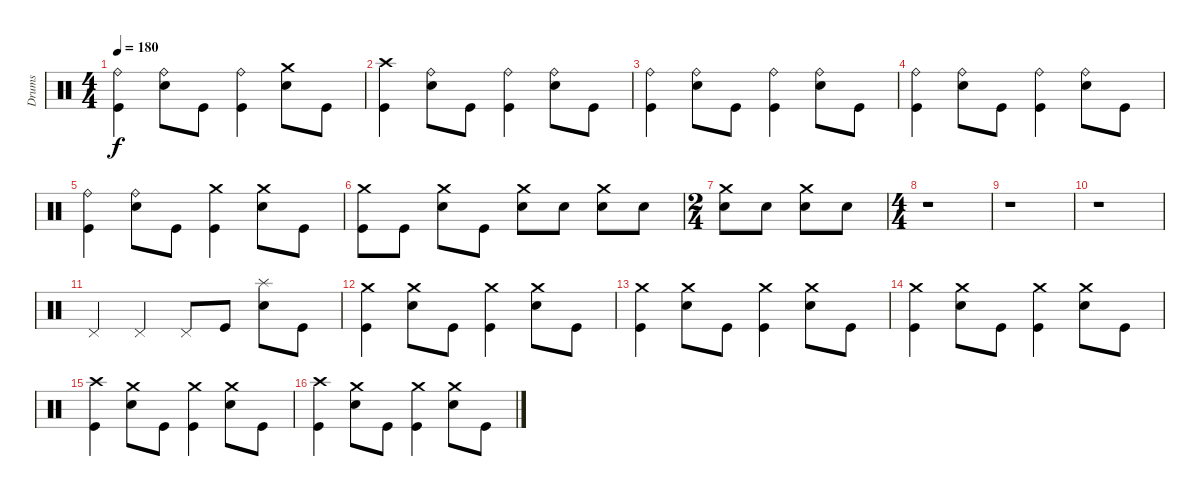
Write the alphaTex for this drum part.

\track ("Drums" "Drums") {instrument percussion}
\staff {score}
\articulation defaults
\ts (4 4)
\tempo 180
\clef neutral
\ks c
("Ride (bell)" "Kick (hit)").4{dy f} ("Ride (bell)" "Snare (hit) 2").8 "Kick (hit)".8 ("Ride (bell)" "Kick (hit)").4 ("Crash medium (hit)" "Snare (hit) 2").8 "Kick (hit)".8 |
("Crash high (hit)" "Kick (hit)").4 ("Ride (bell)" "Snare (hit) 2").8 "Kick (hit)".8 ("Ride (bell)" "Kick (hit)").4 ("Ride (bell)" "Snare (hit) 2").8 "Kick (hit)".8 |
("Ride (bell)" "Kick (hit)").4 ("Ride (bell)" "Snare (hit) 2").8 "Kick (hit)".8 ("Ride (bell)" "Kick (hit)").4 ("Ride (bell)" "Snare (hit) 2").8 "Kick (hit)".8 |
("Ride (bell)" "Kick (hit)").4 ("Ride (bell)" "Snare (hit) 2").8 "Kick (hit)".8 ("Ride (bell)" "Kick (hit)").4 ("Ride (bell)" "Snare (hit) 2").8 "Kick (hit)".8 |
("Ride (bell)" "Kick (hit)").4 ("Ride (bell)" "Snare (hit) 2").8 "Kick (hit)".8 ("Crash medium (hit)" "Kick (hit)").4 ("Crash medium (hit)" "Snare (hit) 2").8 "Kick (hit)".8 |
("Crash medium (hit)" "Kick (hit)").8 "Kick (hit)".8 ("Crash medium (hit)" "Snare (hit) 2").8 "Kick (hit)".8 ("Crash medium (hit)" "Snare (hit) 2").8 "Snare (hit) 2".8 ("Crash medium (hit)" "Snare (hit) 2").8 "Snare (hit) 2".8 |
\ts (2 4)
("Crash medium (hit)" "Snare (hit) 2").8 "Snare (hit) 2".8 ("Crash medium (hit)" "Snare (hit) 2").8 "Snare (hit) 2".8 |
\ts (4 4)
r.1 |
r.1 |
r.1 |
"Pedal Hi-Hat (hit)".4 "Pedal Hi-Hat (hit)".4 "Pedal Hi-Hat (hit)".8 "Kick (hit)".8 ("Splash (hit)" "Electric Snare (hit)").8 "Kick (hit)".8 |
("Crash medium (hit)" "Kick (hit)").4 ("Crash medium (hit)" "Electric Snare (hit)").8 "Kick (hit)".8 ("Crash medium (hit)" "Kick (hit)").4 ("Crash medium (hit)" "Electric Snare (hit)").8 "Kick (hit)".8 |
("Crash medium (hit)" "Kick (hit)").4 ("Crash medium (hit)" "Electric Snare (hit)").8 "Kick (hit)".8 ("Crash medium (hit)" "Kick (hit)").4 ("Crash medium (hit)" "Electric Snare (hit)").8 "Kick (hit)".8 |
("Crash medium (hit)" "Kick (hit)").4 ("Crash medium (hit)" "Electric Snare (hit)").8 "Kick (hit)".8 ("Crash medium (hit)" "Kick (hit)").4 ("Crash medium (hit)" "Electric Snare (hit)").8 "Kick (hit)".8 |
("Crash high (hit)" "Kick (hit)").4 ("Crash medium (hit)" "Electric Snare (hit)").8 "Kick (hit)".8 ("Crash medium (hit)" "Kick (hit)").4 ("Crash medium (hit)" "Electric Snare (hit)").8 "Kick (hit)".8 |
("Crash high (hit)" "Kick (hit)").4 ("Crash medium (hit)" "Electric Snare (hit)").8 "Kick (hit)".8 ("Crash medium (hit)" "Kick (hit)").4 ("Crash medium (hit)" "Electric Snare (hit)").8 "Kick (hit)".8
